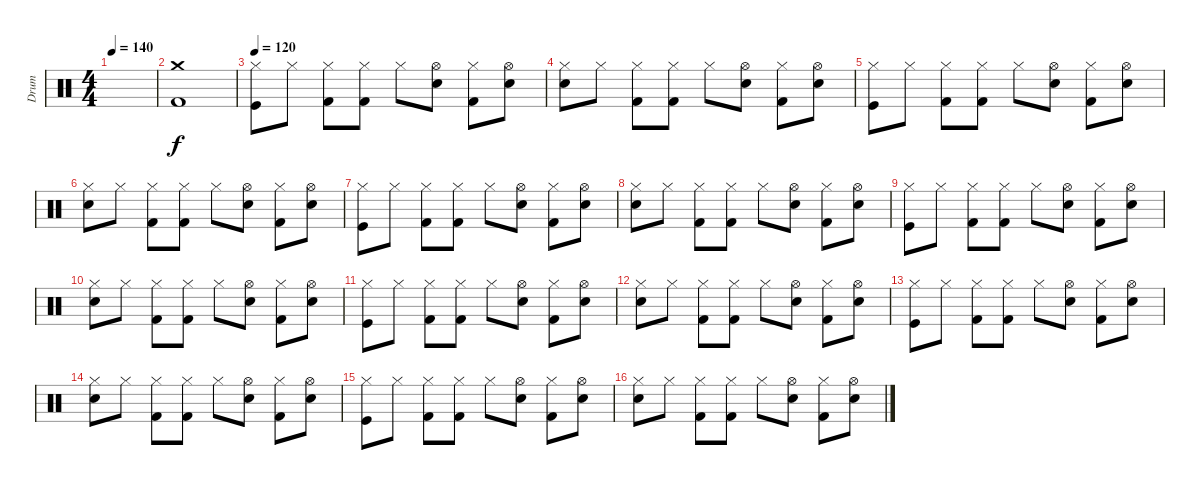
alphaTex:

\track ("Drum" "Drum") {instrument percussion}
\staff {score}
\articulation defaults
\ts (4 4)
\tempo 140
\clef neutral
\ks c
|
("Crash medium (hit)" "Kick (hit) 2").1 |
\tempo 120
("Hi-Hat (closed)" "Kick (hit)").8 "Hi-Hat (closed)".8 ("Hi-Hat (closed)" "Kick (hit) 2").8 ("Hi-Hat (closed)" "Kick (hit) 2").8 "Hi-Hat (closed)".8 ("Hi-Hat (open)" "Snare (hit) 2").8 ("Hi-Hat (closed)" "Kick (hit) 2").8 ("Hi-Hat (open)" "Snare (hit) 2").8 |
("Hi-Hat (closed)" "Snare (hit) 2").8 "Hi-Hat (closed)".8 ("Hi-Hat (closed)" "Kick (hit) 2").8 ("Hi-Hat (closed)" "Kick (hit) 2").8 "Hi-Hat (closed)".8 ("Hi-Hat (open)" "Snare (hit) 2").8 ("Hi-Hat (closed)" "Kick (hit) 2").8 ("Hi-Hat (open)" "Snare (hit) 2").8 |
("Hi-Hat (closed)" "Kick (hit)").8 "Hi-Hat (closed)".8 ("Hi-Hat (closed)" "Kick (hit) 2").8 ("Hi-Hat (closed)" "Kick (hit) 2").8 "Hi-Hat (closed)".8 ("Hi-Hat (open)" "Snare (hit) 2").8 ("Hi-Hat (closed)" "Kick (hit) 2").8 ("Hi-Hat (open)" "Snare (hit) 2").8 |
("Hi-Hat (closed)" "Snare (hit) 2").8 "Hi-Hat (closed)".8 ("Hi-Hat (closed)" "Kick (hit) 2").8 ("Hi-Hat (closed)" "Kick (hit) 2").8 "Hi-Hat (closed)".8 ("Hi-Hat (open)" "Snare (hit) 2").8 ("Hi-Hat (closed)" "Kick (hit) 2").8 ("Hi-Hat (open)" "Snare (hit) 2").8 |
("Hi-Hat (closed)" "Kick (hit)").8 "Hi-Hat (closed)".8 ("Hi-Hat (closed)" "Kick (hit) 2").8 ("Hi-Hat (closed)" "Kick (hit) 2").8 "Hi-Hat (closed)".8 ("Hi-Hat (open)" "Snare (hit) 2").8 ("Hi-Hat (closed)" "Kick (hit) 2").8 ("Hi-Hat (open)" "Snare (hit) 2").8 |
("Hi-Hat (closed)" "Snare (hit) 2").8 "Hi-Hat (closed)".8 ("Hi-Hat (closed)" "Kick (hit) 2").8 ("Hi-Hat (closed)" "Kick (hit) 2").8 "Hi-Hat (closed)".8 ("Hi-Hat (open)" "Snare (hit) 2").8 ("Hi-Hat (closed)" "Kick (hit) 2").8 ("Hi-Hat (open)" "Snare (hit) 2").8 |
("Hi-Hat (closed)" "Kick (hit)").8 "Hi-Hat (closed)".8 ("Hi-Hat (closed)" "Kick (hit) 2").8 ("Hi-Hat (closed)" "Kick (hit) 2").8 "Hi-Hat (closed)".8 ("Hi-Hat (open)" "Snare (hit) 2").8 ("Hi-Hat (closed)" "Kick (hit) 2").8 ("Hi-Hat (open)" "Snare (hit) 2").8 |
("Hi-Hat (closed)" "Snare (hit) 2").8 "Hi-Hat (closed)".8 ("Hi-Hat (closed)" "Kick (hit) 2").8 ("Hi-Hat (closed)" "Kick (hit) 2").8 "Hi-Hat (closed)".8 ("Hi-Hat (open)" "Snare (hit) 2").8 ("Hi-Hat (closed)" "Kick (hit) 2").8 ("Hi-Hat (open)" "Snare (hit) 2").8 |
("Hi-Hat (closed)" "Kick (hit)").8 "Hi-Hat (closed)".8 ("Hi-Hat (closed)" "Kick (hit) 2").8 ("Hi-Hat (closed)" "Kick (hit) 2").8 "Hi-Hat (closed)".8 ("Hi-Hat (open)" "Snare (hit) 2").8 ("Hi-Hat (closed)" "Kick (hit) 2").8 ("Hi-Hat (open)" "Snare (hit) 2").8 |
("Hi-Hat (closed)" "Snare (hit) 2").8 "Hi-Hat (closed)".8 ("Hi-Hat (closed)" "Kick (hit) 2").8 ("Hi-Hat (closed)" "Kick (hit) 2").8 "Hi-Hat (closed)".8 ("Hi-Hat (open)" "Snare (hit) 2").8 ("Hi-Hat (closed)" "Kick (hit) 2").8 ("Hi-Hat (open)" "Snare (hit) 2").8 |
("Hi-Hat (closed)" "Kick (hit)").8 "Hi-Hat (closed)".8 ("Hi-Hat (closed)" "Kick (hit) 2").8 ("Hi-Hat (closed)" "Kick (hit) 2").8 "Hi-Hat (closed)".8 ("Hi-Hat (open)" "Snare (hit) 2").8 ("Hi-Hat (closed)" "Kick (hit) 2").8 ("Hi-Hat (open)" "Snare (hit) 2").8 |
("Hi-Hat (closed)" "Snare (hit) 2").8 "Hi-Hat (closed)".8 ("Hi-Hat (closed)" "Kick (hit) 2").8 ("Hi-Hat (closed)" "Kick (hit) 2").8 "Hi-Hat (closed)".8 ("Hi-Hat (open)" "Snare (hit) 2").8 ("Hi-Hat (closed)" "Kick (hit) 2").8 ("Hi-Hat (open)" "Snare (hit) 2").8 |
("Hi-Hat (closed)" "Kick (hit)").8 "Hi-Hat (closed)".8 ("Hi-Hat (closed)" "Kick (hit) 2").8 ("Hi-Hat (closed)" "Kick (hit) 2").8 "Hi-Hat (closed)".8 ("Hi-Hat (open)" "Snare (hit) 2").8 ("Hi-Hat (closed)" "Kick (hit) 2").8 ("Hi-Hat (open)" "Snare (hit) 2").8 |
("Hi-Hat (closed)" "Snare (hit) 2").8 "Hi-Hat (closed)".8 ("Hi-Hat (closed)" "Kick (hit) 2").8 ("Hi-Hat (closed)" "Kick (hit) 2").8 "Hi-Hat (closed)".8 ("Hi-Hat (open)" "Snare (hit) 2").8 ("Hi-Hat (closed)" "Kick (hit) 2").8 ("Hi-Hat (open)" "Snare (hit) 2").8
